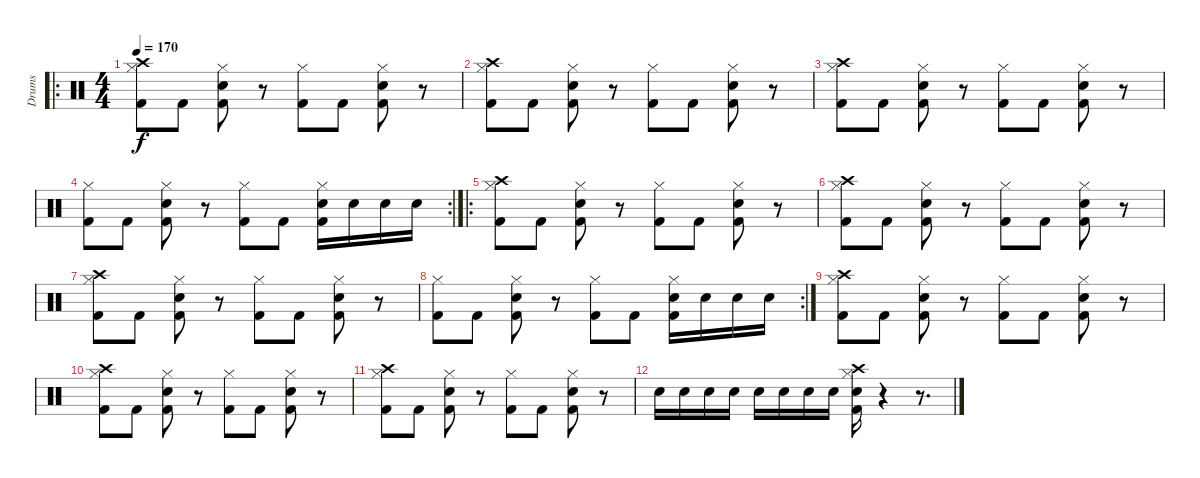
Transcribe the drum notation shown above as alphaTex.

\track ("Drums" "Drums") {instrument percussion}
\staff {score}
\articulation defaults
\ro
\ts (4 4)
\tempo 170
\clef neutral
\ks c
("Hi-Hat (closed)" "Crash high (hit)" "Kick (hit) 2").8{dy f} "Kick (hit) 2".8 ("Hi-Hat (closed)" "Snare (hit) 2" "Kick (hit) 2").8 r.8 ("Hi-Hat (closed)" "Kick (hit) 2").8 "Kick (hit) 2".8 ("Hi-Hat (closed)" "Snare (hit) 2" "Kick (hit) 2").8 r.8 |
("Hi-Hat (closed)" "Crash high (hit)" "Kick (hit) 2").8 "Kick (hit) 2".8 ("Hi-Hat (closed)" "Snare (hit) 2" "Kick (hit) 2").8 r.8 ("Hi-Hat (closed)" "Kick (hit) 2").8 "Kick (hit) 2".8 ("Hi-Hat (closed)" "Snare (hit) 2" "Kick (hit) 2").8 r.8 |
("Hi-Hat (closed)" "Crash high (hit)" "Kick (hit) 2").8 "Kick (hit) 2".8 ("Hi-Hat (closed)" "Snare (hit) 2" "Kick (hit) 2").8 r.8 ("Hi-Hat (closed)" "Kick (hit) 2").8 "Kick (hit) 2".8 ("Hi-Hat (closed)" "Snare (hit) 2" "Kick (hit) 2").8 r.8 |
\rc 2
("Hi-Hat (closed)" "Kick (hit) 2").8 "Kick (hit) 2".8 ("Hi-Hat (closed)" "Snare (hit) 2" "Kick (hit) 2").8 r.8 ("Hi-Hat (closed)" "Kick (hit) 2").8 "Kick (hit) 2".8 ("Hi-Hat (closed)" "Snare (hit) 2" "Kick (hit) 2").16 "Snare (hit) 2".16 "Snare (hit) 2".16 "Snare (hit) 2".16 |
\ro
("Hi-Hat (closed)" "Crash high (hit)" "Kick (hit) 2").8 "Kick (hit) 2".8 ("Hi-Hat (closed)" "Snare (hit) 2" "Kick (hit) 2").8 r.8 ("Hi-Hat (closed)" "Kick (hit) 2").8 "Kick (hit) 2".8 ("Hi-Hat (closed)" "Snare (hit) 2" "Kick (hit) 2").8 r.8 |
("Hi-Hat (closed)" "Crash high (hit)" "Kick (hit) 2").8 "Kick (hit) 2".8 ("Hi-Hat (closed)" "Snare (hit) 2" "Kick (hit) 2").8 r.8 ("Hi-Hat (closed)" "Kick (hit) 2").8 "Kick (hit) 2".8 ("Hi-Hat (closed)" "Snare (hit) 2" "Kick (hit) 2").8 r.8 |
("Hi-Hat (closed)" "Crash high (hit)" "Kick (hit) 2").8 "Kick (hit) 2".8 ("Hi-Hat (closed)" "Snare (hit) 2" "Kick (hit) 2").8 r.8 ("Hi-Hat (closed)" "Kick (hit) 2").8 "Kick (hit) 2".8 ("Hi-Hat (closed)" "Snare (hit) 2" "Kick (hit) 2").8 r.8 |
\rc 2
("Hi-Hat (closed)" "Kick (hit) 2").8 "Kick (hit) 2".8 ("Hi-Hat (closed)" "Snare (hit) 2" "Kick (hit) 2").8 r.8 ("Hi-Hat (closed)" "Kick (hit) 2").8 "Kick (hit) 2".8 ("Hi-Hat (closed)" "Snare (hit) 2" "Kick (hit) 2").16 "Snare (hit) 2".16 "Snare (hit) 2".16 "Snare (hit) 2".16 |
("Hi-Hat (closed)" "Crash high (hit)" "Kick (hit) 2").8 "Kick (hit) 2".8 ("Hi-Hat (closed)" "Snare (hit) 2" "Kick (hit) 2").8 r.8 ("Hi-Hat (closed)" "Kick (hit) 2").8 "Kick (hit) 2".8 ("Hi-Hat (closed)" "Snare (hit) 2" "Kick (hit) 2").8 r.8 |
("Hi-Hat (closed)" "Crash high (hit)" "Kick (hit) 2").8 "Kick (hit) 2".8 ("Hi-Hat (closed)" "Snare (hit) 2" "Kick (hit) 2").8 r.8 ("Hi-Hat (closed)" "Kick (hit) 2").8 "Kick (hit) 2".8 ("Hi-Hat (closed)" "Snare (hit) 2" "Kick (hit) 2").8 r.8 |
("Hi-Hat (closed)" "Crash high (hit)" "Kick (hit) 2").8 "Kick (hit) 2".8 ("Hi-Hat (closed)" "Snare (hit) 2" "Kick (hit) 2").8 r.8 ("Hi-Hat (closed)" "Kick (hit) 2").8 "Kick (hit) 2".8 ("Hi-Hat (closed)" "Snare (hit) 2" "Kick (hit) 2").8 r.8 |
"Electric Snare (hit)".16 "Electric Snare (hit)".16 "Electric Snare (hit)".16 "Electric Snare (hit)".16 "Electric Snare (hit)".16 "Electric Snare (hit)".16 "Electric Snare (hit)".16 "Electric Snare (hit)".16 ("Hi-Hat (closed)" "Crash high (hit)" "Electric Snare (hit)" "Kick (hit) 2").16 r.4 r.8{d}
